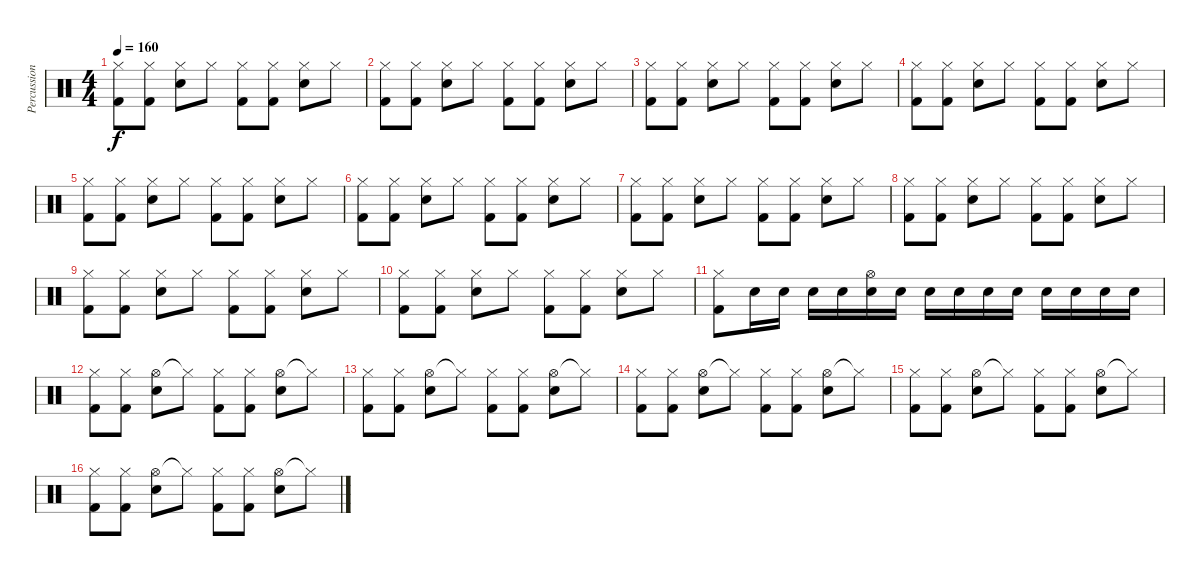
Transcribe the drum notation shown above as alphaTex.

\track ("Percussions" "Percussion") {instrument percussion}
\staff {score}
\articulation defaults
\ts (4 4)
\tempo 160
\clef neutral
\ks c
("Hi-Hat (closed)" "Kick (hit) 2").8{dy f} ("Hi-Hat (closed)" "Kick (hit) 2").8 ("Hi-Hat (closed)" "Snare (hit) 2").8 "Hi-Hat (closed)".8 ("Hi-Hat (closed)" "Kick (hit) 2").8 ("Hi-Hat (closed)" "Kick (hit) 2").8 ("Hi-Hat (closed)" "Snare (hit) 2").8 "Hi-Hat (closed)".8 |
("Hi-Hat (closed)" "Kick (hit) 2").8 ("Hi-Hat (closed)" "Kick (hit) 2").8 ("Hi-Hat (closed)" "Snare (hit) 2").8 "Hi-Hat (closed)".8 ("Hi-Hat (closed)" "Kick (hit) 2").8 ("Hi-Hat (closed)" "Kick (hit) 2").8 ("Hi-Hat (closed)" "Snare (hit) 2").8 "Hi-Hat (closed)".8 |
("Hi-Hat (closed)" "Kick (hit) 2").8 ("Hi-Hat (closed)" "Kick (hit) 2").8 ("Hi-Hat (closed)" "Snare (hit) 2").8 "Hi-Hat (closed)".8 ("Hi-Hat (closed)" "Kick (hit) 2").8 ("Hi-Hat (closed)" "Kick (hit) 2").8 ("Hi-Hat (closed)" "Snare (hit) 2").8 "Hi-Hat (closed)".8 |
("Hi-Hat (closed)" "Kick (hit) 2").8 ("Hi-Hat (closed)" "Kick (hit) 2").8 ("Hi-Hat (closed)" "Snare (hit) 2").8 "Hi-Hat (closed)".8 ("Hi-Hat (closed)" "Kick (hit) 2").8 ("Hi-Hat (closed)" "Kick (hit) 2").8 ("Hi-Hat (closed)" "Snare (hit) 2").8 "Hi-Hat (closed)".8 |
("Hi-Hat (closed)" "Kick (hit) 2").8 ("Hi-Hat (closed)" "Kick (hit) 2").8 ("Hi-Hat (closed)" "Snare (hit) 2").8 "Hi-Hat (closed)".8 ("Hi-Hat (closed)" "Kick (hit) 2").8 ("Hi-Hat (closed)" "Kick (hit) 2").8 ("Hi-Hat (closed)" "Snare (hit) 2").8 "Hi-Hat (closed)".8 |
("Hi-Hat (closed)" "Kick (hit) 2").8 ("Hi-Hat (closed)" "Kick (hit) 2").8 ("Hi-Hat (closed)" "Snare (hit) 2").8 "Hi-Hat (closed)".8 ("Hi-Hat (closed)" "Kick (hit) 2").8 ("Hi-Hat (closed)" "Kick (hit) 2").8 ("Hi-Hat (closed)" "Snare (hit) 2").8 "Hi-Hat (closed)".8 |
("Hi-Hat (closed)" "Kick (hit) 2").8 ("Hi-Hat (closed)" "Kick (hit) 2").8 ("Hi-Hat (closed)" "Snare (hit) 2").8 "Hi-Hat (closed)".8 ("Hi-Hat (closed)" "Kick (hit) 2").8 ("Hi-Hat (closed)" "Kick (hit) 2").8 ("Hi-Hat (closed)" "Snare (hit) 2").8 "Hi-Hat (closed)".8 |
("Hi-Hat (closed)" "Kick (hit) 2").8 ("Hi-Hat (closed)" "Kick (hit) 2").8 ("Hi-Hat (closed)" "Snare (hit) 2").8 "Hi-Hat (closed)".8 ("Hi-Hat (closed)" "Kick (hit) 2").8 ("Hi-Hat (closed)" "Kick (hit) 2").8 ("Hi-Hat (closed)" "Snare (hit) 2").8 "Hi-Hat (closed)".8 |
("Hi-Hat (closed)" "Kick (hit) 2").8 ("Hi-Hat (closed)" "Kick (hit) 2").8 ("Hi-Hat (closed)" "Snare (hit) 2").8 "Hi-Hat (closed)".8 ("Hi-Hat (closed)" "Kick (hit) 2").8 ("Hi-Hat (closed)" "Kick (hit) 2").8 ("Hi-Hat (closed)" "Snare (hit) 2").8 "Hi-Hat (closed)".8 |
("Hi-Hat (closed)" "Kick (hit) 2").8 ("Hi-Hat (closed)" "Kick (hit) 2").8 ("Hi-Hat (closed)" "Snare (hit) 2").8 "Hi-Hat (closed)".8 ("Hi-Hat (closed)" "Kick (hit) 2").8 ("Hi-Hat (closed)" "Kick (hit) 2").8 ("Hi-Hat (closed)" "Snare (hit) 2").8 "Hi-Hat (closed)".8 |
("Hi-Hat (closed)" "Kick (hit) 2").8 "Snare (hit) 2".16 "Snare (hit) 2".16 "Snare (hit) 2".16 "Snare (hit) 2".16 ("Hi-Hat (open)" "Snare (hit) 2").16 "Snare (hit) 2".16 "Snare (hit) 2".16 "Snare (hit) 2".16 "Snare (hit) 2".16 "Snare (hit) 2".16 "Snare (hit) 2".16 "Snare (hit) 2".16 "Snare (hit) 2".16 "Snare (hit) 2".16 |
("Hi-Hat (closed)" "Kick (hit) 2").8 ("Hi-Hat (closed)" "Kick (hit) 2").8 ("Hi-Hat (open)" "Snare (hit) 2").8 "Hi-Hat (closed)"{t}.8 ("Hi-Hat (closed)" "Kick (hit) 2").8 ("Hi-Hat (closed)" "Kick (hit) 2").8 ("Hi-Hat (open)" "Snare (hit) 2").8 "Hi-Hat (closed)"{t}.8 |
("Hi-Hat (closed)" "Kick (hit) 2").8 ("Hi-Hat (closed)" "Kick (hit) 2").8 ("Hi-Hat (open)" "Snare (hit) 2").8 "Hi-Hat (closed)"{t}.8 ("Hi-Hat (closed)" "Kick (hit) 2").8 ("Hi-Hat (closed)" "Kick (hit) 2").8 ("Hi-Hat (open)" "Snare (hit) 2").8 "Hi-Hat (closed)"{t}.8 |
("Hi-Hat (closed)" "Kick (hit) 2").8 ("Hi-Hat (closed)" "Kick (hit) 2").8 ("Hi-Hat (open)" "Snare (hit) 2").8 "Hi-Hat (closed)"{t}.8 ("Hi-Hat (closed)" "Kick (hit) 2").8 ("Hi-Hat (closed)" "Kick (hit) 2").8 ("Hi-Hat (open)" "Snare (hit) 2").8 "Hi-Hat (closed)"{t}.8 |
("Hi-Hat (closed)" "Kick (hit) 2").8 ("Hi-Hat (closed)" "Kick (hit) 2").8 ("Hi-Hat (open)" "Snare (hit) 2").8 "Hi-Hat (closed)"{t}.8 ("Hi-Hat (closed)" "Kick (hit) 2").8 ("Hi-Hat (closed)" "Kick (hit) 2").8 ("Hi-Hat (open)" "Snare (hit) 2").8 "Hi-Hat (closed)"{t}.8 |
("Hi-Hat (closed)" "Kick (hit) 2").8 ("Hi-Hat (closed)" "Kick (hit) 2").8 ("Hi-Hat (open)" "Snare (hit) 2").8 "Hi-Hat (closed)"{t}.8 ("Hi-Hat (closed)" "Kick (hit) 2").8 ("Hi-Hat (closed)" "Kick (hit) 2").8 ("Hi-Hat (open)" "Snare (hit) 2").8 "Hi-Hat (closed)"{t}.8
